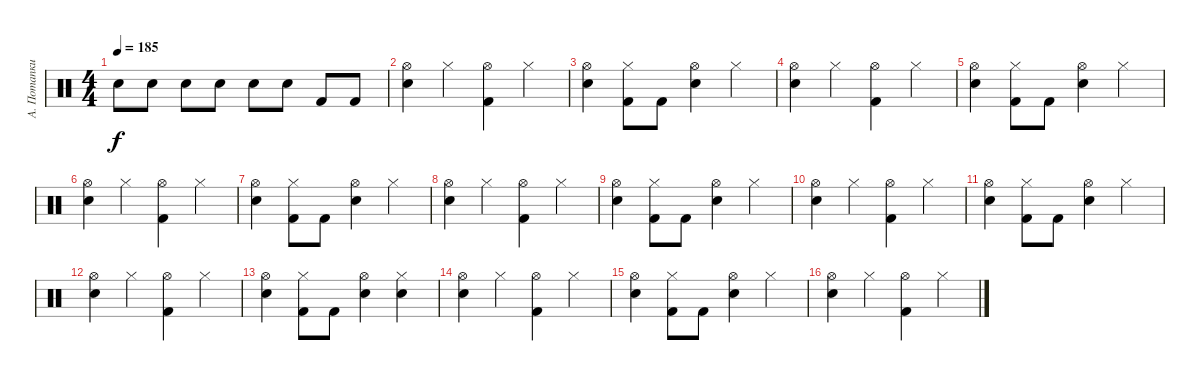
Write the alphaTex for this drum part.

\track ("А. Потапкин" "А. Потапки") {instrument percussion}
\staff {score}
\articulation defaults
\ts (4 4)
\tempo 185
\clef neutral
\ks c "Electric Snare (hit)".8{dy f} "Electric Snare (hit)".8 "Electric Snare (hit)".8 "Electric Snare (hit)".8 "Snare (hit) 2".8 "Snare (hit) 2".8 "Kick (hit) 2".8 "Kick (hit) 2".8
|
("Hi-Hat (open)" "Snare (hit) 2").4 "Hi-Hat (closed)".4 ("Hi-Hat (open)" "Kick (hit) 2").4 "Hi-Hat (closed)".4 |
("Hi-Hat (open)" "Snare (hit) 2").4 ("Hi-Hat (closed)" "Kick (hit) 2").8 "Kick (hit) 2".8 ("Hi-Hat (open)" "Snare (hit) 2").4 "Hi-Hat (closed)".4 |
("Hi-Hat (open)" "Snare (hit) 2").4 "Hi-Hat (closed)".4 ("Hi-Hat (open)" "Kick (hit) 2").4 "Hi-Hat (closed)".4 |
("Hi-Hat (open)" "Snare (hit) 2").4 ("Hi-Hat (closed)" "Kick (hit) 2").8 "Kick (hit) 2".8 ("Hi-Hat (open)" "Snare (hit) 2").4 "Hi-Hat (closed)".4 |
("Hi-Hat (open)" "Snare (hit) 2").4 "Hi-Hat (closed)".4 ("Hi-Hat (open)" "Kick (hit) 2").4 "Hi-Hat (closed)".4 |
("Hi-Hat (open)" "Snare (hit) 2").4 ("Hi-Hat (closed)" "Kick (hit) 2").8 "Kick (hit) 2".8 ("Hi-Hat (open)" "Snare (hit) 2").4 "Hi-Hat (closed)".4 |
("Hi-Hat (open)" "Snare (hit) 2").4 "Hi-Hat (closed)".4 ("Hi-Hat (open)" "Kick (hit) 2").4 "Hi-Hat (closed)".4 |
("Hi-Hat (open)" "Snare (hit) 2").4 ("Hi-Hat (closed)" "Kick (hit) 2").8 "Kick (hit) 2".8 ("Hi-Hat (open)" "Snare (hit) 2").4 "Hi-Hat (closed)".4 |
("Hi-Hat (open)" "Snare (hit) 2").4 "Hi-Hat (closed)".4 ("Hi-Hat (open)" "Kick (hit) 2").4 "Hi-Hat (closed)".4 |
("Hi-Hat (open)" "Snare (hit) 2").4 ("Hi-Hat (closed)" "Kick (hit) 2").8 "Kick (hit) 2".8 ("Hi-Hat (open)" "Snare (hit) 2").4 "Hi-Hat (closed)".4 |
("Hi-Hat (open)" "Snare (hit) 2").4 "Hi-Hat (closed)".4 ("Hi-Hat (open)" "Kick (hit) 2").4 "Hi-Hat (closed)".4 |
("Hi-Hat (open)" "Snare (hit) 2").4 ("Hi-Hat (closed)" "Kick (hit) 2").8 "Kick (hit) 2".8 ("Hi-Hat (open)" "Snare (hit) 2").4 ("Hi-Hat (closed)" "Snare (hit) 2").4 |
("Hi-Hat (open)" "Snare (hit) 2").4 "Hi-Hat (closed)".4 ("Hi-Hat (open)" "Kick (hit) 2").4 "Hi-Hat (closed)".4 |
("Hi-Hat (open)" "Snare (hit) 2").4 ("Hi-Hat (closed)" "Kick (hit) 2").8 "Kick (hit) 2".8 ("Hi-Hat (open)" "Snare (hit) 2").4 "Hi-Hat (closed)".4 |
("Hi-Hat (open)" "Snare (hit) 2").4 "Hi-Hat (closed)".4 ("Hi-Hat (open)" "Kick (hit) 2").4 "Hi-Hat (closed)".4
